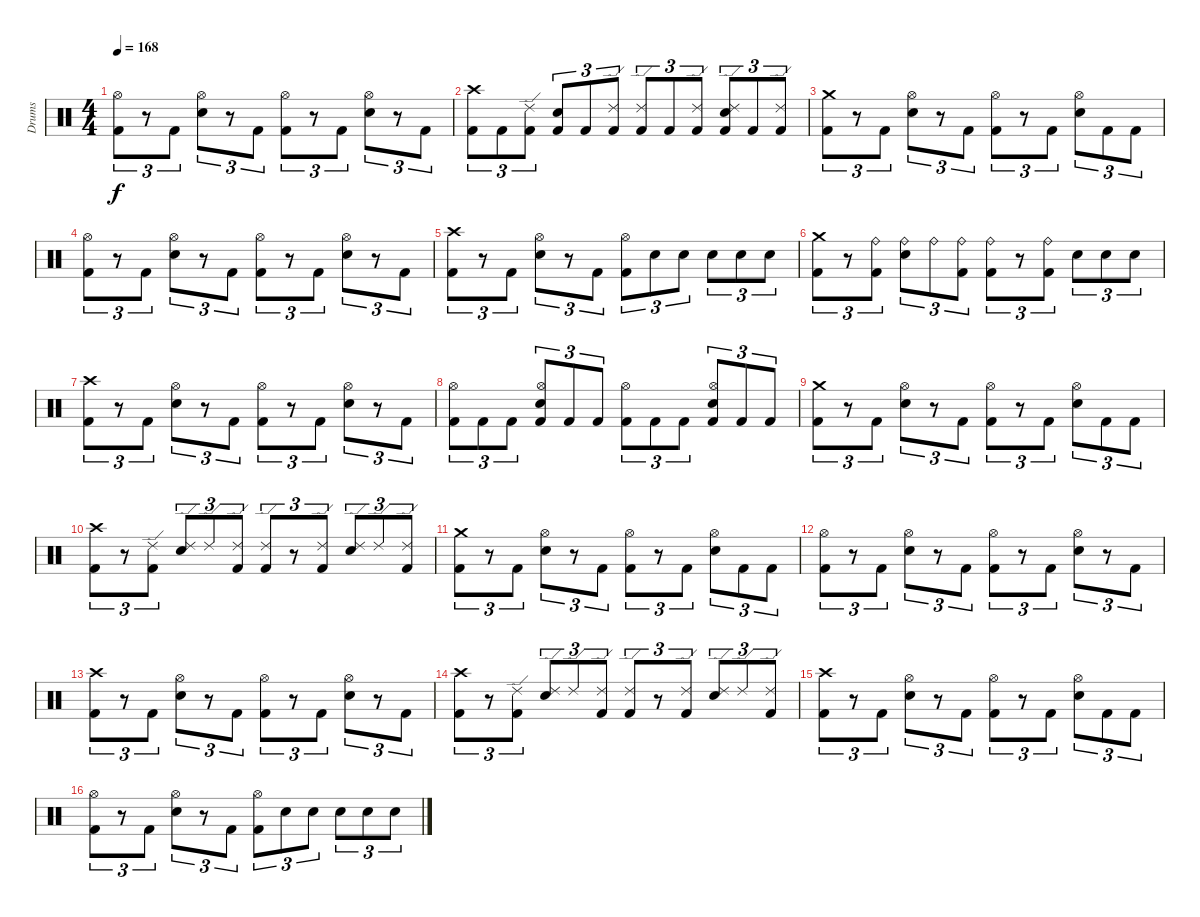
\track ("Drums" "Drums") {instrument percussion}
\staff {score}
\articulation defaults
\ts (4 4)
\tempo 168
\clef neutral
\ks c
("Kick (hit) 2" "Hi-Hat (open)").8{tu (3 2) dy f} r.8{tu (3 2)} "Kick (hit) 2".8{tu (3 2)} ("Electric Snare (hit)" "Hi-Hat (open)").8{tu (3 2)} r.8{tu (3 2)} "Kick (hit) 2".8{tu (3 2)} ("Kick (hit) 2" "Hi-Hat (open)").8{tu (3 2)} r.8{tu (3 2)} "Kick (hit) 2".8{tu (3 2)} ("Electric Snare (hit)" "Hi-Hat (open)").8{tu (3 2)} r.8{tu (3 2)} "Kick (hit) 2".8{tu (3 2)} |
("Kick (hit) 2" "Crash high (hit)").8{tu (3 2)} "Kick (hit) 2".8{tu (3 2)} ("Kick (hit) 2" "Ride (edge) 2").8{tu (3 2)} ("Kick (hit) 2" "Electric Snare (hit)").8{tu (3 2)} "Kick (hit) 2".8{tu (3 2)} ("Kick (hit) 2" "Ride (edge) 2").8{tu (3 2)} ("Kick (hit) 2" "Ride (edge) 2").8{tu (3 2)} "Kick (hit) 2".8{tu (3 2)} ("Kick (hit) 2" "Ride (edge) 2").8{tu (3 2)} ("Kick (hit) 2" "Electric Snare (hit)" "Ride (edge) 2").8{tu (3 2)} "Kick (hit) 2".8{tu (3 2)} ("Kick (hit) 2" "Ride (edge) 2").8{tu (3 2)} |
("Kick (hit) 2" "Crash medium (hit)").8{tu (3 2)} r.8{tu (3 2)} "Kick (hit) 2".8{tu (3 2)} ("Electric Snare (hit)" "Hi-Hat (open)").8{tu (3 2)} r.8{tu (3 2)} "Kick (hit) 2".8{tu (3 2)} ("Kick (hit) 2" "Hi-Hat (open)").8{tu (3 2)} r.8{tu (3 2)} "Kick (hit) 2".8{tu (3 2)} ("Electric Snare (hit)" "Hi-Hat (open)").8{tu (3 2)} "Kick (hit) 2".8{tu (3 2)} "Kick (hit) 2".8{tu (3 2)} |
("Kick (hit) 2" "Hi-Hat (open)").8{tu (3 2)} r.8{tu (3 2)} "Kick (hit) 2".8{tu (3 2)} ("Electric Snare (hit)" "Hi-Hat (open)").8{tu (3 2)} r.8{tu (3 2)} "Kick (hit) 2".8{tu (3 2)} ("Kick (hit) 2" "Hi-Hat (open)").8{tu (3 2)} r.8{tu (3 2)} "Kick (hit) 2".8{tu (3 2)} ("Electric Snare (hit)" "Hi-Hat (open)").8{tu (3 2)} r.8{tu (3 2)} "Kick (hit) 2".8{tu (3 2)} |
("Kick (hit) 2" "Crash high (hit)").8{tu (3 2)} r.8{tu (3 2)} "Kick (hit) 2".8{tu (3 2)} ("Electric Snare (hit)" "Hi-Hat (open)").8{tu (3 2)} r.8{tu (3 2)} "Kick (hit) 2".8{tu (3 2)} ("Kick (hit) 2" "Hi-Hat (open)").8{tu (3 2)} "Electric Snare (hit)".8{tu (3 2)} "Electric Snare (hit)".8{tu (3 2)} "Electric Snare (hit)".8{tu (3 2)} "Electric Snare (hit)".8{tu (3 2)} "Electric Snare (hit)".8{tu (3 2)} |
("Kick (hit) 2" "Crash medium (hit)").8{tu (3 2)} r.8{tu (3 2)} ("Kick (hit) 2" "Ride (bell)").8{tu (3 2)} ("Electric Snare (hit)" "Ride (bell)").8{tu (3 2)} "Ride (bell)".8{tu (3 2)} ("Kick (hit) 2" "Ride (bell)").8{tu (3 2)} ("Kick (hit) 2" "Ride (bell)").8{tu (3 2)} r.8{tu (3 2)} ("Kick (hit) 2" "Ride (bell)").8{tu (3 2)} "Electric Snare (hit)".8{tu (3 2)} "Electric Snare (hit)".8{tu (3 2)} "Electric Snare (hit)".8{tu (3 2)} |
("Kick (hit) 2" "Crash high (hit)").8{tu (3 2)} r.8{tu (3 2)} "Kick (hit) 2".8{tu (3 2)} ("Electric Snare (hit)" "Hi-Hat (open)").8{tu (3 2)} r.8{tu (3 2)} "Kick (hit) 2".8{tu (3 2)} ("Kick (hit) 2" "Hi-Hat (open)").8{tu (3 2)} r.8{tu (3 2)} "Kick (hit) 2".8{tu (3 2)} ("Electric Snare (hit)" "Hi-Hat (open)").8{tu (3 2)} r.8{tu (3 2)} "Kick (hit) 2".8{tu (3 2)} |
("Kick (hit) 2" "Hi-Hat (open)").8{tu (3 2)} "Kick (hit) 2".8{tu (3 2)} "Kick (hit) 2".8{tu (3 2)} ("Kick (hit) 2" "Electric Snare (hit)" "Hi-Hat (open)").8{tu (3 2)} "Kick (hit) 2".8{tu (3 2)} "Kick (hit) 2".8{tu (3 2)} ("Kick (hit) 2" "Hi-Hat (open)").8{tu (3 2)} "Kick (hit) 2".8{tu (3 2)} "Kick (hit) 2".8{tu (3 2)} ("Kick (hit) 2" "Electric Snare (hit)" "Hi-Hat (open)").8{tu (3 2)} "Kick (hit) 2".8{tu (3 2)} "Kick (hit) 2".8{tu (3 2)} |
("Kick (hit) 2" "Crash medium (hit)").8{tu (3 2)} r.8{tu (3 2)} "Kick (hit) 2".8{tu (3 2)} ("Electric Snare (hit)" "Hi-Hat (open)").8{tu (3 2)} r.8{tu (3 2)} "Kick (hit) 2".8{tu (3 2)} ("Kick (hit) 2" "Hi-Hat (open)").8{tu (3 2)} r.8{tu (3 2)} "Kick (hit) 2".8{tu (3 2)} ("Electric Snare (hit)" "Hi-Hat (open)").8{tu (3 2)} "Kick (hit) 2".8{tu (3 2)} "Kick (hit) 2".8{tu (3 2)} |
("Kick (hit) 2" "Crash high (hit)").8{tu (3 2)} r.8{tu (3 2)} ("Kick (hit) 2" "Ride (edge) 2").8{tu (3 2)} ("Electric Snare (hit)" "Ride (edge) 2").8{tu (3 2)} "Ride (edge) 2".8{tu (3 2)} ("Kick (hit) 2" "Ride (edge) 2").8{tu (3 2)} ("Kick (hit) 2" "Ride (edge) 2").8{tu (3 2)} r.8{tu (3 2)} ("Kick (hit) 2" "Ride (edge) 2").8{tu (3 2)} ("Electric Snare (hit)" "Ride (edge) 2").8{tu (3 2)} "Ride (edge) 2".8{tu (3 2)} ("Kick (hit) 2" "Ride (edge) 2").8{tu (3 2)} |
\section ("" "")
("Kick (hit) 2" "Crash medium (hit)").8{tu (3 2)} r.8{tu (3 2)} "Kick (hit) 2".8{tu (3 2)} ("Electric Snare (hit)" "Hi-Hat (open)").8{tu (3 2)} r.8{tu (3 2)} "Kick (hit) 2".8{tu (3 2)} ("Kick (hit) 2" "Hi-Hat (open)").8{tu (3 2)} r.8{tu (3 2)} "Kick (hit) 2".8{tu (3 2)} ("Electric Snare (hit)" "Hi-Hat (open)").8{tu (3 2)} "Kick (hit) 2".8{tu (3 2)} "Kick (hit) 2".8{tu (3 2)} |
("Kick (hit) 2" "Hi-Hat (open)").8{tu (3 2)} r.8{tu (3 2)} "Kick (hit) 2".8{tu (3 2)} ("Electric Snare (hit)" "Hi-Hat (open)").8{tu (3 2)} r.8{tu (3 2)} "Kick (hit) 2".8{tu (3 2)} ("Kick (hit) 2" "Hi-Hat (open)").8{tu (3 2)} r.8{tu (3 2)} "Kick (hit) 2".8{tu (3 2)} ("Electric Snare (hit)" "Hi-Hat (open)").8{tu (3 2)} r.8{tu (3 2)} "Kick (hit) 2".8{tu (3 2)} |
("Kick (hit) 2" "Crash high (hit)").8{tu (3 2)} r.8{tu (3 2)} "Kick (hit) 2".8{tu (3 2)} ("Electric Snare (hit)" "Hi-Hat (open)").8{tu (3 2)} r.8{tu (3 2)} "Kick (hit) 2".8{tu (3 2)} ("Kick (hit) 2" "Hi-Hat (open)").8{tu (3 2)} r.8{tu (3 2)} "Kick (hit) 2".8{tu (3 2)} ("Electric Snare (hit)" "Hi-Hat (open)").8{tu (3 2)} r.8{tu (3 2)} "Kick (hit) 2".8{tu (3 2)} |
("Kick (hit) 2" "Crash high (hit)").8{tu (3 2)} r.8{tu (3 2)} ("Kick (hit) 2" "Ride (edge) 2").8{tu (3 2)} ("Electric Snare (hit)" "Ride (edge) 2").8{tu (3 2)} "Ride (edge) 2".8{tu (3 2)} ("Kick (hit) 2" "Ride (edge) 2").8{tu (3 2)} ("Kick (hit) 2" "Ride (edge) 2").8{tu (3 2)} r.8{tu (3 2)} ("Kick (hit) 2" "Ride (edge) 2").8{tu (3 2)} ("Electric Snare (hit)" "Ride (edge) 2").8{tu (3 2)} "Ride (edge) 2".8{tu (3 2)} ("Kick (hit) 2" "Ride (edge) 2").8{tu (3 2)} |
("Kick (hit) 2" "Crash high (hit)").8{tu (3 2)} r.8{tu (3 2)} "Kick (hit) 2".8{tu (3 2)} ("Electric Snare (hit)" "Hi-Hat (open)").8{tu (3 2)} r.8{tu (3 2)} "Kick (hit) 2".8{tu (3 2)} ("Kick (hit) 2" "Hi-Hat (open)").8{tu (3 2)} r.8{tu (3 2)} "Kick (hit) 2".8{tu (3 2)} ("Electric Snare (hit)" "Hi-Hat (open)").8{tu (3 2)} "Kick (hit) 2".8{tu (3 2)} "Kick (hit) 2".8{tu (3 2)} |
("Kick (hit) 2" "Hi-Hat (open)").8{tu (3 2)} r.8{tu (3 2)} "Kick (hit) 2".8{tu (3 2)} ("Electric Snare (hit)" "Hi-Hat (open)").8{tu (3 2)} r.8{tu (3 2)} "Kick (hit) 2".8{tu (3 2)} ("Kick (hit) 2" "Hi-Hat (open)").8{tu (3 2)} "Electric Snare (hit)".8{tu (3 2)} "Electric Snare (hit)".8{tu (3 2)} "Electric Snare (hit)".8{tu (3 2)} "Electric Snare (hit)".8{tu (3 2)} "Electric Snare (hit)".8{tu (3 2)}
